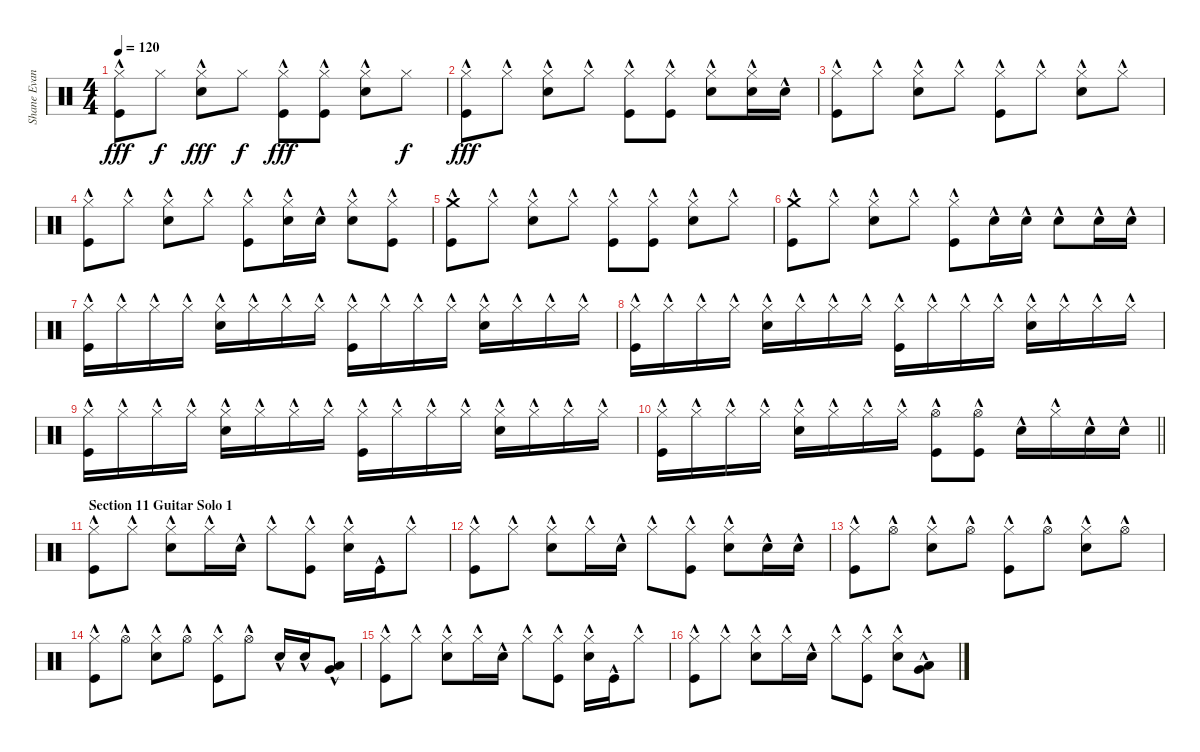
\track ("Shane Evans" "Shane Evan") {instrument percussion}
\staff {score}
\articulation defaults
\ts (4 4)
\tempo 120
\clef neutral
\ks c
("Hi-Hat (closed)"{hac} "Kick (hit)"{hac}).8{dy fff} "Hi-Hat (closed)".8{dy f} ("Hi-Hat (closed)"{hac} "Electric Snare (hit)"{hac}).8{dy fff} "Hi-Hat (closed)".8{dy f} ("Hi-Hat (closed)"{hac} "Kick (hit)"{hac}).8{dy fff} ("Hi-Hat (closed)" "Kick (hit)"{hac}).8 ("Hi-Hat (closed)"{hac} "Electric Snare (hit)"{hac}).8 "Hi-Hat (closed)".8{dy f} |
("Hi-Hat (closed)"{hac} "Kick (hit)"{hac}).8{dy fff} "Hi-Hat (closed)"{hac}.8 ("Hi-Hat (closed)"{hac} "Electric Snare (hit)"{hac}).8 "Hi-Hat (closed)"{hac}.8 ("Hi-Hat (closed)"{hac} "Kick (hit)"{hac}).8 ("Hi-Hat (closed)"{hac} "Kick (hit)"{hac}).8 ("Hi-Hat (closed)"{hac} "Electric Snare (hit)"{hac}).8 ("Hi-Hat (closed)"{hac} "Electric Snare (hit)"{hac}).16 "Electric Snare (hit)"{hac}.16 |
("Hi-Hat (closed)"{hac} "Kick (hit)"{hac}).8 "Hi-Hat (closed)"{hac}.8 ("Hi-Hat (closed)"{hac} "Electric Snare (hit)"{hac}).8 "Hi-Hat (closed)"{hac}.8 ("Hi-Hat (closed)"{hac} "Kick (hit)"{hac}).8 "Hi-Hat (closed)"{hac}.8 ("Hi-Hat (closed)"{hac} "Electric Snare (hit)"{hac}).8 "Hi-Hat (closed)"{hac}.8 |
("Hi-Hat (closed)"{hac} "Kick (hit)"{hac}).8 "Hi-Hat (closed)"{hac}.8 ("Hi-Hat (closed)"{hac} "Electric Snare (hit)"{hac}).8 "Hi-Hat (closed)"{hac}.8 ("Hi-Hat (closed)"{hac} "Kick (hit)"{hac}).8 ("Hi-Hat (closed)"{hac} "Electric Snare (hit)"{hac}).16 "Electric Snare (hit)"{hac}.16 ("Hi-Hat (closed)"{hac} "Electric Snare (hit)"{hac}).8 ("Hi-Hat (closed)"{hac} "Kick (hit)"{hac}).8 |
("Crash medium (hit)"{hac} "Kick (hit)"{hac}).8 "Hi-Hat (closed)"{hac}.8 ("Hi-Hat (closed)"{hac} "Electric Snare (hit)"{hac}).8 "Hi-Hat (closed)"{hac}.8 ("Hi-Hat (closed)"{hac} "Kick (hit)"{hac}).8 ("Hi-Hat (closed)"{hac} "Kick (hit)"{hac}).8 ("Hi-Hat (closed)"{hac} "Electric Snare (hit)"{hac}).8 "Hi-Hat (closed)"{hac}.8 |
("Crash medium (hit)"{hac} "Kick (hit)"{hac}).8 "Hi-Hat (closed)"{hac}.8 ("Hi-Hat (closed)"{hac} "Electric Snare (hit)"{hac}).8 "Hi-Hat (closed)"{hac}.8 ("Hi-Hat (closed)"{hac} "Kick (hit)"{hac}).8 "Electric Snare (hit)"{hac}.16 "Electric Snare (hit)"{hac}.16 "Electric Snare (hit)"{hac}.8 "Electric Snare (hit)"{hac}.16 "Electric Snare (hit)"{hac}.16 |
("Hi-Hat (closed)"{hac} "Kick (hit)"{hac}).16 "Hi-Hat (closed)"{hac}.16 "Hi-Hat (closed)"{hac}.16 "Hi-Hat (closed)"{hac}.16 ("Hi-Hat (closed)"{hac} "Electric Snare (hit)"{hac}).16 "Hi-Hat (closed)"{hac}.16 "Hi-Hat (closed)"{hac}.16 "Hi-Hat (closed)"{hac}.16 ("Hi-Hat (closed)"{hac} "Kick (hit)"{hac}).16 "Hi-Hat (closed)"{hac}.16 "Hi-Hat (closed)"{hac}.16 "Hi-Hat (closed)"{hac}.16 ("Hi-Hat (closed)"{hac} "Electric Snare (hit)"{hac}).16 "Hi-Hat (closed)"{hac}.16 "Hi-Hat (closed)"{hac}.16 "Hi-Hat (closed)"{hac}.16 |
("Hi-Hat (closed)"{hac} "Kick (hit)"{hac}).16 "Hi-Hat (closed)"{hac}.16 "Hi-Hat (closed)"{hac}.16 "Hi-Hat (closed)"{hac}.16 ("Hi-Hat (closed)"{hac} "Electric Snare (hit)"{hac}).16 "Hi-Hat (closed)"{hac}.16 "Hi-Hat (closed)"{hac}.16 "Hi-Hat (closed)"{hac}.16 ("Hi-Hat (closed)"{hac} "Kick (hit)"{hac}).16 "Hi-Hat (closed)"{hac}.16 "Hi-Hat (closed)"{hac}.16 "Hi-Hat (closed)"{hac}.16 ("Hi-Hat (closed)"{hac} "Electric Snare (hit)"{hac}).16 "Hi-Hat (closed)"{hac}.16 "Hi-Hat (closed)"{hac}.16 "Hi-Hat (closed)"{hac}.16 |
("Hi-Hat (closed)"{hac} "Kick (hit)"{hac}).16 "Hi-Hat (closed)"{hac}.16 "Hi-Hat (closed)"{hac}.16 "Hi-Hat (closed)"{hac}.16 ("Hi-Hat (closed)"{hac} "Electric Snare (hit)"{hac}).16 "Hi-Hat (closed)"{hac}.16 "Hi-Hat (closed)"{hac}.16 "Hi-Hat (closed)"{hac}.16 ("Hi-Hat (closed)"{hac} "Kick (hit)"{hac}).16 "Hi-Hat (closed)"{hac}.16 "Hi-Hat (closed)"{hac}.16 "Hi-Hat (closed)"{hac}.16 ("Hi-Hat (closed)"{hac} "Electric Snare (hit)"{hac}).16 "Hi-Hat (closed)"{hac}.16 "Hi-Hat (closed)"{hac}.16 "Hi-Hat (closed)"{hac}.16 |
\barLineRight lightlight
("Hi-Hat (closed)"{hac} "Kick (hit)"{hac}).16 "Hi-Hat (closed)"{hac}.16 "Hi-Hat (closed)"{hac}.16 "Hi-Hat (closed)"{hac}.16 ("Hi-Hat (closed)"{hac} "Electric Snare (hit)"{hac}).16 "Hi-Hat (closed)"{hac}.16 "Hi-Hat (closed)"{hac}.16 "Hi-Hat (closed)"{hac}.16 ("Hi-Hat (open)"{hac} "Kick (hit)"{hac}).8 ("Hi-Hat (open)"{hac} "Kick (hit)"{hac}).8 "Electric Snare (hit)"{hac}.16 "Hi-Hat (closed)"{hac}.16 "Electric Snare (hit)"{hac}.16 "Electric Snare (hit)"{hac}.16 |
\section ("" "Section 11 Guitar Solo 1")
("Hi-Hat (closed)"{hac} "Kick (hit)"{hac}).8 "Hi-Hat (closed)"{hac}.8 ("Hi-Hat (closed)"{hac} "Electric Snare (hit)"{hac}).8 "Hi-Hat (closed)"{hac}.16 "Electric Snare (hit)"{hac}.16 "Hi-Hat (closed)"{hac}.8 ("Hi-Hat (closed)"{hac} "Kick (hit)"{hac}).8 ("Hi-Hat (closed)"{hac} "Electric Snare (hit)"{hac}).16 "Kick (hit)"{hac}.16 "Hi-Hat (closed)"{hac}.8 |
("Hi-Hat (closed)"{hac} "Kick (hit)"{hac}).8 "Hi-Hat (closed)"{hac}.8 ("Hi-Hat (closed)"{hac} "Electric Snare (hit)"{hac}).8 "Hi-Hat (closed)"{hac}.16 "Electric Snare (hit)"{hac}.16 "Hi-Hat (closed)"{hac}.8 ("Hi-Hat (closed)"{hac} "Kick (hit)"{hac}).8 ("Hi-Hat (closed)"{hac} "Electric Snare (hit)"{hac}).8 "Electric Snare (hit)"{hac}.16 "Electric Snare (hit)"{hac}.16 |
("Hi-Hat (closed)"{hac} "Kick (hit)"{hac}).8 "Hi-Hat (open)"{hac}.8 ("Hi-Hat (closed)"{hac} "Electric Snare (hit)"{hac}).8 "Hi-Hat (open)"{hac}.8 ("Hi-Hat (closed)"{hac} "Kick (hit)"{hac}).8 "Hi-Hat (open)"{hac}.8 ("Hi-Hat (closed)"{hac} "Electric Snare (hit)"{hac}).8 "Hi-Hat (open)"{hac}.8 |
("Hi-Hat (closed)"{hac} "Kick (hit)"{hac}).8 "Hi-Hat (open)"{hac}.8 ("Hi-Hat (closed)"{hac} "Electric Snare (hit)"{hac}).8 "Hi-Hat (open)"{hac}.8 ("Hi-Hat (closed)"{hac} "Kick (hit)"{hac}).8 "Hi-Hat (open)"{hac}.8 "Electric Snare (hit)"{hac}.16 "Electric Snare (hit)"{hac}.16 ("Low Tom (hit)"{hac} "Very Low Tom (hit)"{hac}).8 |
("Hi-Hat (closed)"{hac} "Kick (hit)"{hac}).8 "Hi-Hat (closed)"{hac}.8 ("Hi-Hat (closed)"{hac} "Electric Snare (hit)"{hac}).8 "Hi-Hat (closed)"{hac}.16 "Electric Snare (hit)"{hac}.16 "Hi-Hat (closed)"{hac}.8 ("Hi-Hat (closed)"{hac} "Kick (hit)"{hac}).8 ("Hi-Hat (closed)"{hac} "Electric Snare (hit)"{hac}).16 "Kick (hit)"{hac}.16 "Hi-Hat (closed)"{hac}.8 |
("Hi-Hat (closed)"{hac} "Kick (hit)"{hac}).8 "Hi-Hat (closed)"{hac}.8 ("Hi-Hat (closed)"{hac} "Electric Snare (hit)"{hac}).8 "Hi-Hat (closed)"{hac}.16 "Electric Snare (hit)"{hac}.16 "Hi-Hat (closed)"{hac}.8 ("Hi-Hat (closed)"{hac} "Kick (hit)"{hac}).8 ("Hi-Hat (closed)"{hac} "Electric Snare (hit)"{hac}).8 ("Low Tom (hit)"{hac} "Very Low Tom (hit)"{hac}).8
